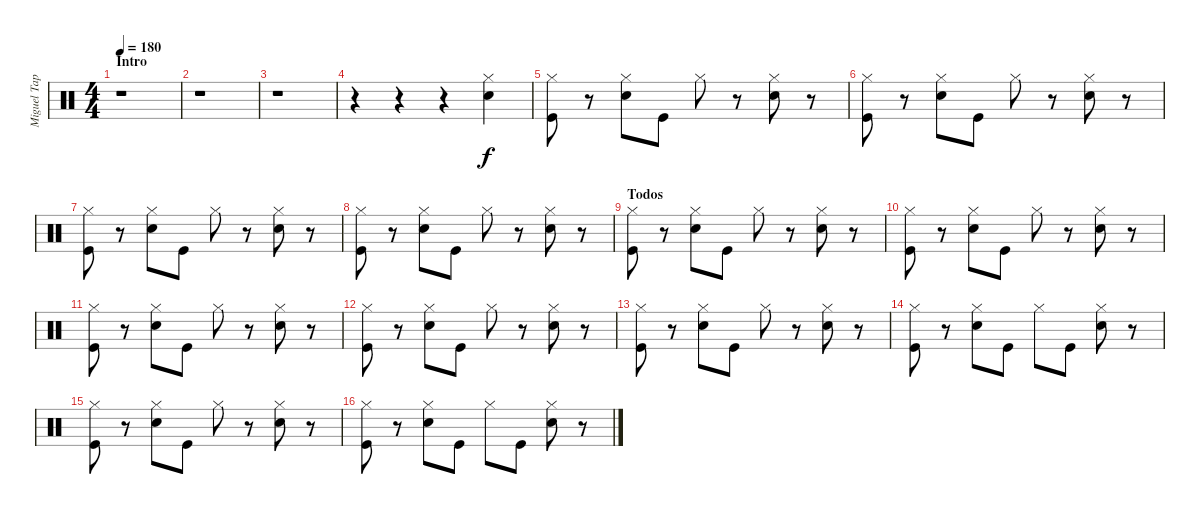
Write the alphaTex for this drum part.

\track ("Miguel Tapia (Batería)" "Miguel Tap") {instrument percussion}
\staff {score}
\articulation defaults
\ts (4 4)
\section ("" "Intro")
\tempo 180
\clef neutral
\ks c
r.1{dy f} |
r.1 |
r.1 |
r.4 r.4 r.4 ("Hi-Hat (closed)" "Snare (hit) 2").4 |
("Hi-Hat (closed)" "Kick (hit)").8 r.8 ("Hi-Hat (closed)" "Snare (hit) 2").8 "Kick (hit)".8 "Hi-Hat (closed)".8 r.8 ("Hi-Hat (closed)" "Snare (hit) 2").8 r.8 |
("Hi-Hat (closed)" "Kick (hit)").8 r.8 ("Hi-Hat (closed)" "Snare (hit) 2").8 "Kick (hit)".8 "Hi-Hat (closed)".8 r.8 ("Hi-Hat (closed)" "Snare (hit) 2").8 r.8 |
("Hi-Hat (closed)" "Kick (hit)").8 r.8 ("Hi-Hat (closed)" "Snare (hit) 2").8 "Kick (hit)".8 "Hi-Hat (closed)".8 r.8 ("Hi-Hat (closed)" "Snare (hit) 2").8 r.8 |
("Hi-Hat (closed)" "Kick (hit)").8 r.8 ("Hi-Hat (closed)" "Snare (hit) 2").8 "Kick (hit)".8 "Hi-Hat (closed)".8 r.8 ("Hi-Hat (closed)" "Snare (hit) 2").8 r.8 |
\section ("" "Todos")
("Hi-Hat (closed)" "Kick (hit)").8 r.8 ("Hi-Hat (closed)" "Snare (hit) 2").8 "Kick (hit)".8 "Hi-Hat (closed)".8 r.8 ("Hi-Hat (closed)" "Snare (hit) 2").8 r.8 |
("Hi-Hat (closed)" "Kick (hit)").8 r.8 ("Hi-Hat (closed)" "Snare (hit) 2").8 "Kick (hit)".8 "Hi-Hat (closed)".8 r.8 ("Hi-Hat (closed)" "Snare (hit) 2").8 r.8 |
("Hi-Hat (closed)" "Kick (hit)").8 r.8 ("Hi-Hat (closed)" "Snare (hit) 2").8 "Kick (hit)".8 "Hi-Hat (closed)".8 r.8 ("Hi-Hat (closed)" "Snare (hit) 2").8 r.8 |
("Hi-Hat (closed)" "Kick (hit)").8 r.8 ("Hi-Hat (closed)" "Snare (hit) 2").8 "Kick (hit)".8 "Hi-Hat (closed)".8 r.8 ("Hi-Hat (closed)" "Snare (hit) 2").8 r.8 |
("Hi-Hat (closed)" "Kick (hit)").8 r.8 ("Hi-Hat (closed)" "Snare (hit) 2").8 "Kick (hit)".8 "Hi-Hat (closed)".8 r.8 ("Hi-Hat (closed)" "Snare (hit) 2").8 r.8 |
("Hi-Hat (closed)" "Kick (hit)").8 r.8 ("Hi-Hat (closed)" "Snare (hit) 2").8 "Kick (hit)".8 "Hi-Hat (closed)".8 "Kick (hit)".8 ("Hi-Hat (closed)" "Snare (hit) 2").8 r.8 |
("Hi-Hat (closed)" "Kick (hit)").8 r.8 ("Hi-Hat (closed)" "Snare (hit) 2").8 "Kick (hit)".8 "Hi-Hat (closed)".8 r.8 ("Hi-Hat (closed)" "Snare (hit) 2").8 r.8 |
("Hi-Hat (closed)" "Kick (hit)").8 r.8 ("Hi-Hat (closed)" "Snare (hit) 2").8 "Kick (hit)".8 "Hi-Hat (closed)".8 "Kick (hit)".8 ("Hi-Hat (closed)" "Snare (hit) 2").8 r.8
